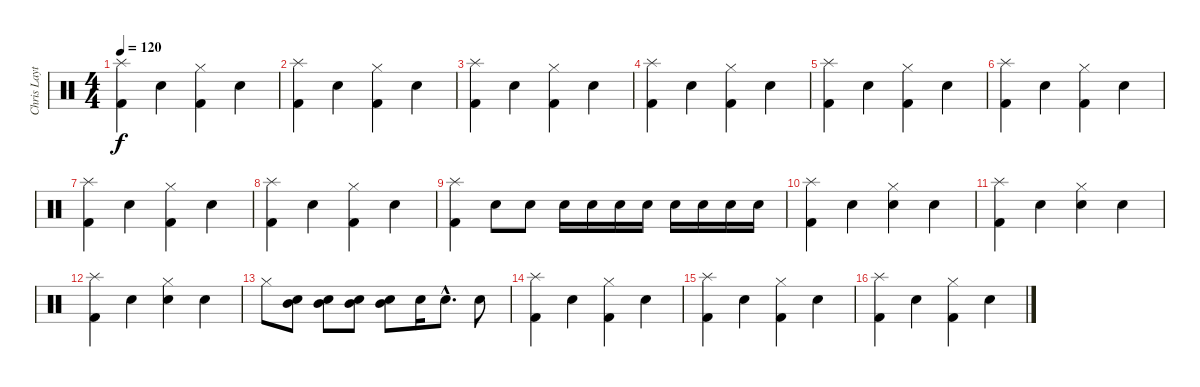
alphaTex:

\track ("Chris Layton" "Chris Layt") {instrument percussion}
\staff {score}
\articulation defaults
\ts (4 4)
\tempo 120
\clef neutral
\ks c
("Kick (hit) 2" "Splash (hit)").4{dy f} "Snare (hit) 2".4 ("Kick (hit) 2" "Hi-Hat (closed)").4 "Snare (hit) 2".4 |
("Kick (hit) 2" "Splash (hit)").4 "Snare (hit) 2".4 ("Kick (hit) 2" "Hi-Hat (closed)").4 "Snare (hit) 2".4 |
("Kick (hit) 2" "Splash (hit)").4 "Snare (hit) 2".4 ("Kick (hit) 2" "Hi-Hat (closed)").4 "Snare (hit) 2".4 |
("Kick (hit) 2" "Splash (hit)").4 "Snare (hit) 2".4 ("Kick (hit) 2" "Hi-Hat (closed)").4 "Snare (hit) 2".4 |
("Kick (hit) 2" "Splash (hit)").4 "Snare (hit) 2".4 ("Kick (hit) 2" "Hi-Hat (closed)").4 "Snare (hit) 2".4 |
("Kick (hit) 2" "Splash (hit)").4 "Snare (hit) 2".4 ("Kick (hit) 2" "Hi-Hat (closed)").4 "Snare (hit) 2".4 |
("Kick (hit) 2" "Splash (hit)").4 "Snare (hit) 2".4 ("Kick (hit) 2" "Hi-Hat (closed)").4 "Snare (hit) 2".4 |
("Kick (hit) 2" "Splash (hit)").4 "Snare (hit) 2".4 ("Kick (hit) 2" "Hi-Hat (closed)").4 "Snare (hit) 2".4 |
("Kick (hit) 2" "Splash (hit)").4 "Snare (hit) 2".8 "Snare (hit) 2".8 "Snare (hit) 2".16 "Snare (hit) 2".16 "Snare (hit) 2".16 "Snare (hit) 2".16 "Snare (hit) 2".16 "Snare (hit) 2".16 "Snare (hit) 2".16 "Snare (hit) 2".16 |
("Kick (hit) 2" "Splash (hit)").4 "Snare (hit) 2".4 ("Snare (hit) 2" "Hi-Hat (closed)").4 "Snare (hit) 2".4 |
("Kick (hit) 2" "Splash (hit)").4 "Snare (hit) 2".4 ("Snare (hit) 2" "Hi-Hat (closed)").4 "Snare (hit) 2".4 |
("Kick (hit) 2" "Splash (hit)").4 "Snare (hit) 2".4 ("Snare (hit) 2" "Hi-Hat (closed)").4 "Snare (hit) 2".4 |
"Hi-Hat (closed)".8 ("Mid Tom (hit)" "Snare (hit) 2").8 ("Mid Tom (hit)" "Snare (hit) 2").8 ("Mid Tom (hit)" "Snare (hit) 2").8 ("Mid Tom (hit)" "Snare (hit) 2").8 "Snare (hit) 2".16 "Snare (hit) 2"{hac}.8{d} "Snare (hit) 2".8 |
("Kick (hit) 2" "Splash (hit)").4 "Snare (hit) 2".4 ("Kick (hit) 2" "Hi-Hat (closed)").4 "Snare (hit) 2".4 |
("Kick (hit) 2" "Splash (hit)").4 "Snare (hit) 2".4 ("Kick (hit) 2" "Hi-Hat (closed)").4 "Snare (hit) 2".4 |
("Kick (hit) 2" "Splash (hit)").4 "Snare (hit) 2".4 ("Kick (hit) 2" "Hi-Hat (closed)").4 "Snare (hit) 2".4
